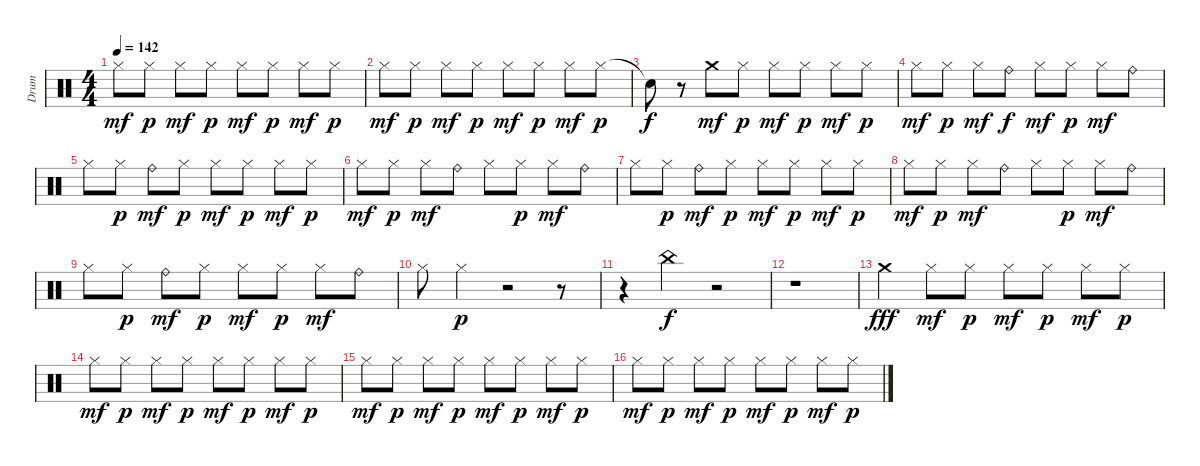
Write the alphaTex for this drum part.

\track ("Drum" "Drum") {instrument percussion}
\staff {score}
\articulation defaults
\ts (4 4)
\tempo 142
\clef neutral
\ks c "Hi-Hat (closed)".8{dy mf} "Hi-Hat (closed)".8{dy p} "Hi-Hat (closed)".8{dy mf} "Hi-Hat (closed)".8{dy p} "Hi-Hat (closed)".8{dy mf} "Hi-Hat (closed)".8{dy p} "Hi-Hat (closed)".8{dy mf} "Hi-Hat (closed)".8{dy p}
|
"Hi-Hat (closed)".8{dy mf} "Hi-Hat (closed)".8{dy p} "Hi-Hat (closed)".8{dy mf} "Hi-Hat (closed)".8{dy p} "Hi-Hat (closed)".8{dy mf} "Hi-Hat (closed)".8{dy p} "Hi-Hat (closed)".8{dy mf} "Hi-Hat (closed)".8{dy p} |
"Snare (hit)"{t}.8{dy f} r.8 "Crash medium (hit)".8{dy mf} "Hi-Hat (closed)".8{dy p} "Hi-Hat (closed)".8{dy mf} "Hi-Hat (closed)".8{dy p} "Hi-Hat (closed)".8{dy mf} "Hi-Hat (closed)".8{dy p} |
"Hi-Hat (closed)".8{dy mf} "Hi-Hat (closed)".8{dy p} "Hi-Hat (closed)".8{dy mf} "Ride (bell)".8{dy f} "Hi-Hat (closed)".8{dy mf} "Hi-Hat (closed)".8{dy p} "Hi-Hat (closed)".8{dy mf} "Ride (bell)".8 |
"Hi-Hat (closed)".8 "Hi-Hat (closed)".8{dy p} "Ride (bell)".8{dy mf} "Hi-Hat (closed)".8{dy p} "Hi-Hat (closed)".8{dy mf} "Hi-Hat (closed)".8{dy p} "Hi-Hat (closed)".8{dy mf} "Hi-Hat (closed)".8{dy p} |
"Hi-Hat (closed)".8{dy mf} "Hi-Hat (closed)".8{dy p} "Hi-Hat (closed)".8{dy mf} "Ride (bell)".8 "Hi-Hat (closed)".8 "Hi-Hat (closed)".8{dy p} "Hi-Hat (closed)".8{dy mf} "Ride (bell)".8 |
"Hi-Hat (closed)".8 "Hi-Hat (closed)".8{dy p} "Ride (bell)".8{dy mf} "Hi-Hat (closed)".8{dy p} "Hi-Hat (closed)".8{dy mf} "Hi-Hat (closed)".8{dy p} "Hi-Hat (closed)".8{dy mf} "Hi-Hat (closed)".8{dy p} |
"Hi-Hat (closed)".8{dy mf} "Hi-Hat (closed)".8{dy p} "Hi-Hat (closed)".8{dy mf} "Ride (bell)".8 "Hi-Hat (closed)".8 "Hi-Hat (closed)".8{dy p} "Hi-Hat (closed)".8{dy mf} "Ride (bell)".8 |
"Hi-Hat (closed)".8 "Hi-Hat (closed)".8{dy p} "Ride (bell)".8{dy mf} "Hi-Hat (closed)".8{dy p} "Hi-Hat (closed)".8{dy mf} "Hi-Hat (closed)".8{dy p} "Hi-Hat (closed)".8{dy mf} "Ride (bell)".8 |
"Hi-Hat (closed)".8 "Hi-Hat (closed)".4{dy p} r.2 r.8 |
r.4 "China (hit)".4{dy f} r.2 |
r.1 |
"Crash medium (hit)".4{dy fff} "Hi-Hat (closed)".8{dy mf} "Hi-Hat (closed)".8{dy p} "Hi-Hat (closed)".8{dy mf} "Hi-Hat (closed)".8{dy p} "Hi-Hat (closed)".8{dy mf} "Hi-Hat (closed)".8{dy p} |
"Hi-Hat (closed)".8{dy mf} "Hi-Hat (closed)".8{dy p} "Hi-Hat (closed)".8{dy mf} "Hi-Hat (closed)".8{dy p} "Hi-Hat (closed)".8{dy mf} "Hi-Hat (closed)".8{dy p} "Hi-Hat (closed)".8{dy mf} "Hi-Hat (closed)".8{dy p} |
"Hi-Hat (closed)".8{dy mf} "Hi-Hat (closed)".8{dy p} "Hi-Hat (closed)".8{dy mf} "Hi-Hat (closed)".8{dy p} "Hi-Hat (closed)".8{dy mf} "Hi-Hat (closed)".8{dy p} "Hi-Hat (closed)".8{dy mf} "Hi-Hat (closed)".8{dy p} |
"Hi-Hat (closed)".8{dy mf} "Hi-Hat (closed)".8{dy p} "Hi-Hat (closed)".8{dy mf} "Hi-Hat (closed)".8{dy p} "Hi-Hat (closed)".8{dy mf} "Hi-Hat (closed)".8{dy p} "Hi-Hat (closed)".8{dy mf} "Hi-Hat (closed)".8{dy p}
